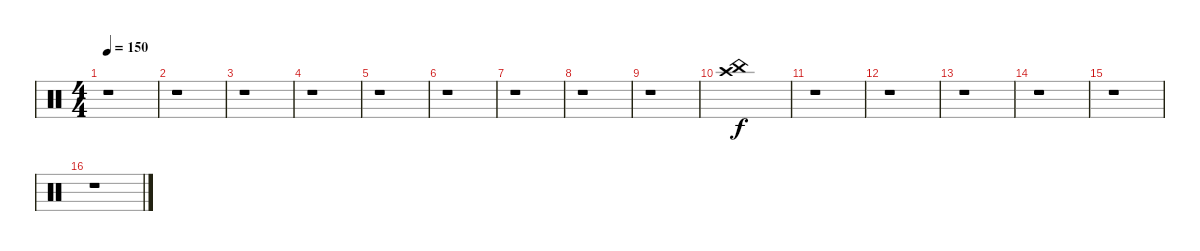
\track "" {instrument percussion}
\staff {score}
\articulation defaults
\ts (4 4)
\tempo 150
\clef neutral
\ks c
r.1{dy f} |
r.1 |
r.1 |
r.1 |
r.1 |
r.1 |
r.1 |
r.1 |
r.1 |
("China (hit)" "Crash high (hit)").1 |
r.1 |
r.1 |
r.1 |
r.1 |
r.1 |
r.1
